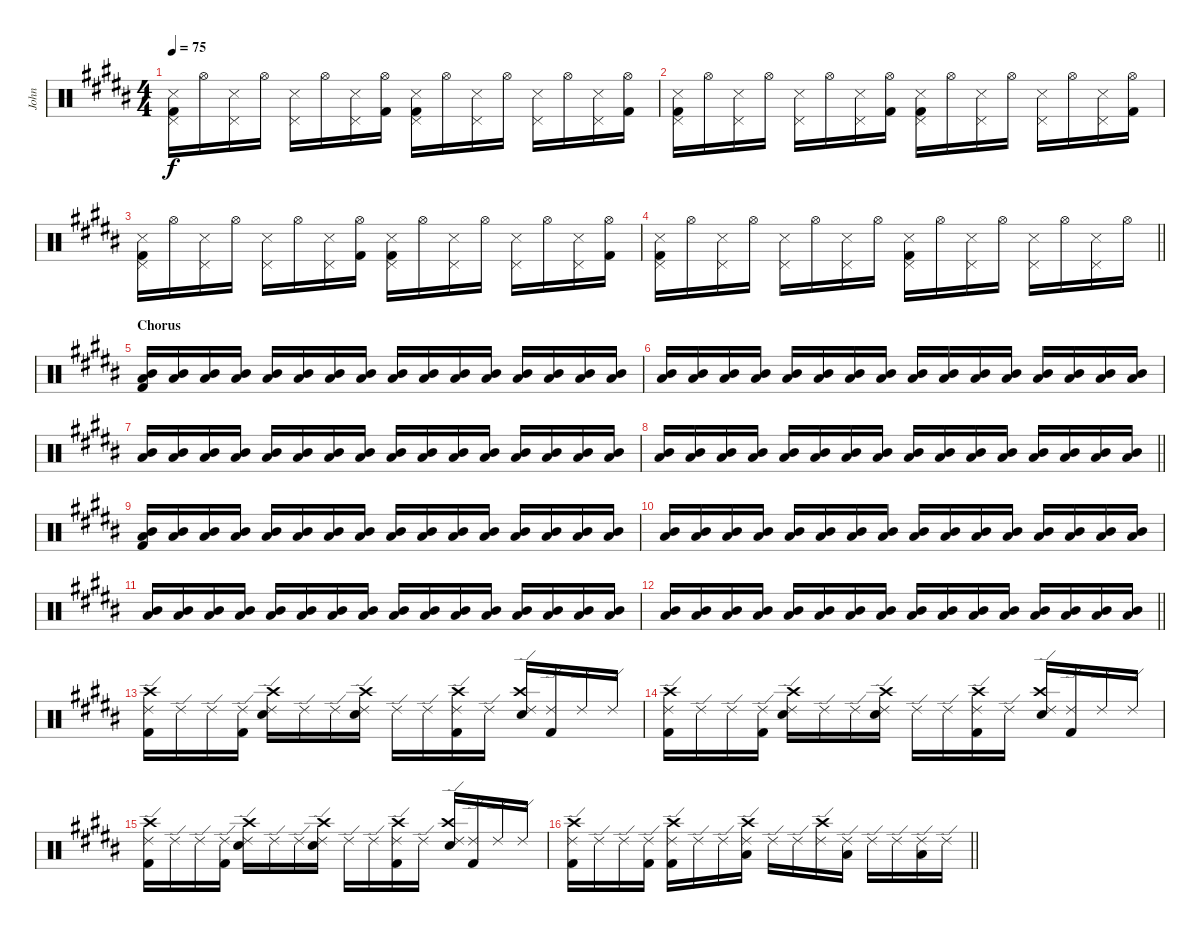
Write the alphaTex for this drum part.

\track ("John" "John") {instrument percussion}
\staff {score}
\articulation defaults
\ts (4 4)
\tempo 75
\clef neutral
\ks g#minor
("Kick (hit) 2" "Pedal Hi-Hat (hit)" "Snare (side stick) 3").16{dy f} "Hi-Hat (open)".16 ("Pedal Hi-Hat (hit)" "Snare (side stick) 3").16 "Hi-Hat (open)".16 ("Pedal Hi-Hat (hit)" "Snare (side stick) 3").16 "Hi-Hat (open)".16 ("Pedal Hi-Hat (hit)" "Snare (side stick) 3").16 ("Kick (hit) 2" "Hi-Hat (open)").16 ("Kick (hit) 2" "Pedal Hi-Hat (hit)" "Snare (side stick) 3").16 "Hi-Hat (open)".16 ("Pedal Hi-Hat (hit)" "Snare (side stick) 3").16 "Hi-Hat (open)".16 ("Pedal Hi-Hat (hit)" "Snare (side stick) 3").16 "Hi-Hat (open)".16 ("Pedal Hi-Hat (hit)" "Snare (side stick) 3").16 ("Kick (hit) 2" "Hi-Hat (open)").16 |
("Kick (hit) 2" "Pedal Hi-Hat (hit)" "Snare (side stick) 3").16 "Hi-Hat (open)".16 ("Pedal Hi-Hat (hit)" "Snare (side stick) 3").16 "Hi-Hat (open)".16 ("Pedal Hi-Hat (hit)" "Snare (side stick) 3").16 "Hi-Hat (open)".16 ("Pedal Hi-Hat (hit)" "Snare (side stick) 3").16 ("Kick (hit) 2" "Hi-Hat (open)").16 ("Kick (hit) 2" "Pedal Hi-Hat (hit)" "Snare (side stick) 3").16 "Hi-Hat (open)".16 ("Pedal Hi-Hat (hit)" "Snare (side stick) 3").16 "Hi-Hat (open)".16 ("Pedal Hi-Hat (hit)" "Snare (side stick) 3").16 "Hi-Hat (open)".16 ("Pedal Hi-Hat (hit)" "Snare (side stick) 3").16 ("Kick (hit) 2" "Hi-Hat (open)").16 |
("Kick (hit) 2" "Pedal Hi-Hat (hit)" "Snare (side stick) 3").16 "Hi-Hat (open)".16 ("Pedal Hi-Hat (hit)" "Snare (side stick) 3").16 "Hi-Hat (open)".16 ("Pedal Hi-Hat (hit)" "Snare (side stick) 3").16 "Hi-Hat (open)".16 ("Pedal Hi-Hat (hit)" "Snare (side stick) 3").16 ("Kick (hit) 2" "Hi-Hat (open)").16 ("Kick (hit) 2" "Pedal Hi-Hat (hit)" "Snare (side stick) 3").16 "Hi-Hat (open)".16 ("Pedal Hi-Hat (hit)" "Snare (side stick) 3").16 "Hi-Hat (open)".16 ("Pedal Hi-Hat (hit)" "Snare (side stick) 3").16 "Hi-Hat (open)".16 ("Pedal Hi-Hat (hit)" "Snare (side stick) 3").16 ("Kick (hit) 2" "Hi-Hat (open)").16 |
\barLineRight lightlight
("Kick (hit) 2" "Pedal Hi-Hat (hit)" "Snare (side stick) 3").16 "Hi-Hat (open)".16 ("Pedal Hi-Hat (hit)" "Snare (side stick) 3").16 "Hi-Hat (open)".16 ("Pedal Hi-Hat (hit)" "Snare (side stick) 3").16 "Hi-Hat (open)".16 ("Pedal Hi-Hat (hit)" "Snare (side stick) 3").16 "Hi-Hat (open)".16 ("Kick (hit) 2" "Pedal Hi-Hat (hit)" "Snare (side stick) 3").16 "Hi-Hat (open)".16 ("Pedal Hi-Hat (hit)" "Snare (side stick) 3").16 "Hi-Hat (open)".16 ("Pedal Hi-Hat (hit)" "Snare (side stick) 3").16 "Hi-Hat (open)".16 ("Pedal Hi-Hat (hit)" "Snare (side stick) 3").16 "Hi-Hat (open)".16 |
\section ("" "Chorus")
("Kick (hit) 2" "Mid Tom (hit)" "Low Tom (hit)").16 ("Mid Tom (hit)" "Low Tom (hit)").16 ("Mid Tom (hit)" "Low Tom (hit)").16 ("Mid Tom (hit)" "Low Tom (hit)").16 ("Mid Tom (hit)" "Low Tom (hit)").16 ("Mid Tom (hit)" "Low Tom (hit)").16 ("Mid Tom (hit)" "Low Tom (hit)").16 ("Mid Tom (hit)" "Low Tom (hit)").16 ("Mid Tom (hit)" "Low Tom (hit)").16 ("Mid Tom (hit)" "Low Tom (hit)").16 ("Mid Tom (hit)" "Low Tom (hit)").16 ("Mid Tom (hit)" "Low Tom (hit)").16 ("Mid Tom (hit)" "Low Tom (hit)").16 ("Mid Tom (hit)" "Low Tom (hit)").16 ("Mid Tom (hit)" "Low Tom (hit)").16 ("Mid Tom (hit)" "Low Tom (hit)").16 |
("Mid Tom (hit)" "Low Tom (hit)").16 ("Mid Tom (hit)" "Low Tom (hit)").16 ("Mid Tom (hit)" "Low Tom (hit)").16 ("Mid Tom (hit)" "Low Tom (hit)").16 ("Mid Tom (hit)" "Low Tom (hit)").16 ("Mid Tom (hit)" "Low Tom (hit)").16 ("Mid Tom (hit)" "Low Tom (hit)").16 ("Mid Tom (hit)" "Low Tom (hit)").16 ("Mid Tom (hit)" "Low Tom (hit)").16 ("Mid Tom (hit)" "Low Tom (hit)").16 ("Mid Tom (hit)" "Low Tom (hit)").16 ("Mid Tom (hit)" "Low Tom (hit)").16 ("Mid Tom (hit)" "Low Tom (hit)").16 ("Mid Tom (hit)" "Low Tom (hit)").16 ("Mid Tom (hit)" "Low Tom (hit)").16 ("Mid Tom (hit)" "Low Tom (hit)").16 |
("Mid Tom (hit)" "Low Tom (hit)").16 ("Mid Tom (hit)" "Low Tom (hit)").16 ("Mid Tom (hit)" "Low Tom (hit)").16 ("Mid Tom (hit)" "Low Tom (hit)").16 ("Mid Tom (hit)" "Low Tom (hit)").16 ("Mid Tom (hit)" "Low Tom (hit)").16 ("Mid Tom (hit)" "Low Tom (hit)").16 ("Mid Tom (hit)" "Low Tom (hit)").16 ("Mid Tom (hit)" "Low Tom (hit)").16 ("Mid Tom (hit)" "Low Tom (hit)").16 ("Mid Tom (hit)" "Low Tom (hit)").16 ("Mid Tom (hit)" "Low Tom (hit)").16 ("Mid Tom (hit)" "Low Tom (hit)").16 ("Mid Tom (hit)" "Low Tom (hit)").16 ("Mid Tom (hit)" "Low Tom (hit)").16 ("Mid Tom (hit)" "Low Tom (hit)").16 |
\barLineRight lightlight
("Mid Tom (hit)" "Low Tom (hit)").16 ("Mid Tom (hit)" "Low Tom (hit)").16 ("Mid Tom (hit)" "Low Tom (hit)").16 ("Mid Tom (hit)" "Low Tom (hit)").16 ("Mid Tom (hit)" "Low Tom (hit)").16 ("Mid Tom (hit)" "Low Tom (hit)").16 ("Mid Tom (hit)" "Low Tom (hit)").16 ("Mid Tom (hit)" "Low Tom (hit)").16 ("Mid Tom (hit)" "Low Tom (hit)").16 ("Mid Tom (hit)" "Low Tom (hit)").16 ("Mid Tom (hit)" "Low Tom (hit)").16 ("Mid Tom (hit)" "Low Tom (hit)").16 ("Mid Tom (hit)" "Low Tom (hit)").16 ("Mid Tom (hit)" "Low Tom (hit)").16 ("Mid Tom (hit)" "Low Tom (hit)").16 ("Mid Tom (hit)" "Low Tom (hit)").16 |
("Kick (hit) 2" "Mid Tom (hit)" "Low Tom (hit)").16 ("Mid Tom (hit)" "Low Tom (hit)").16 ("Mid Tom (hit)" "Low Tom (hit)").16 ("Mid Tom (hit)" "Low Tom (hit)").16 ("Mid Tom (hit)" "Low Tom (hit)").16 ("Mid Tom (hit)" "Low Tom (hit)").16 ("Mid Tom (hit)" "Low Tom (hit)").16 ("Mid Tom (hit)" "Low Tom (hit)").16 ("Mid Tom (hit)" "Low Tom (hit)").16 ("Mid Tom (hit)" "Low Tom (hit)").16 ("Mid Tom (hit)" "Low Tom (hit)").16 ("Mid Tom (hit)" "Low Tom (hit)").16 ("Mid Tom (hit)" "Low Tom (hit)").16 ("Mid Tom (hit)" "Low Tom (hit)").16 ("Mid Tom (hit)" "Low Tom (hit)").16 ("Mid Tom (hit)" "Low Tom (hit)").16 |
("Mid Tom (hit)" "Low Tom (hit)").16 ("Mid Tom (hit)" "Low Tom (hit)").16 ("Mid Tom (hit)" "Low Tom (hit)").16 ("Mid Tom (hit)" "Low Tom (hit)").16 ("Mid Tom (hit)" "Low Tom (hit)").16 ("Mid Tom (hit)" "Low Tom (hit)").16 ("Mid Tom (hit)" "Low Tom (hit)").16 ("Mid Tom (hit)" "Low Tom (hit)").16 ("Mid Tom (hit)" "Low Tom (hit)").16 ("Mid Tom (hit)" "Low Tom (hit)").16 ("Mid Tom (hit)" "Low Tom (hit)").16 ("Mid Tom (hit)" "Low Tom (hit)").16 ("Mid Tom (hit)" "Low Tom (hit)").16 ("Mid Tom (hit)" "Low Tom (hit)").16 ("Mid Tom (hit)" "Low Tom (hit)").16 ("Mid Tom (hit)" "Low Tom (hit)").16 |
("Mid Tom (hit)" "Low Tom (hit)").16 ("Mid Tom (hit)" "Low Tom (hit)").16 ("Mid Tom (hit)" "Low Tom (hit)").16 ("Mid Tom (hit)" "Low Tom (hit)").16 ("Mid Tom (hit)" "Low Tom (hit)").16 ("Mid Tom (hit)" "Low Tom (hit)").16 ("Mid Tom (hit)" "Low Tom (hit)").16 ("Mid Tom (hit)" "Low Tom (hit)").16 ("Mid Tom (hit)" "Low Tom (hit)").16 ("Mid Tom (hit)" "Low Tom (hit)").16 ("Mid Tom (hit)" "Low Tom (hit)").16 ("Mid Tom (hit)" "Low Tom (hit)").16 ("Mid Tom (hit)" "Low Tom (hit)").16 ("Mid Tom (hit)" "Low Tom (hit)").16 ("Mid Tom (hit)" "Low Tom (hit)").16 ("Mid Tom (hit)" "Low Tom (hit)").16 |
\barLineRight lightlight
("Mid Tom (hit)" "Low Tom (hit)").16 ("Mid Tom (hit)" "Low Tom (hit)").16 ("Mid Tom (hit)" "Low Tom (hit)").16 ("Mid Tom (hit)" "Low Tom (hit)").16 ("Mid Tom (hit)" "Low Tom (hit)").16 ("Mid Tom (hit)" "Low Tom (hit)").16 ("Mid Tom (hit)" "Low Tom (hit)").16 ("Mid Tom (hit)" "Low Tom (hit)").16 ("Mid Tom (hit)" "Low Tom (hit)").16 ("Mid Tom (hit)" "Low Tom (hit)").16 ("Mid Tom (hit)" "Low Tom (hit)").16 ("Mid Tom (hit)" "Low Tom (hit)").16 ("Mid Tom (hit)" "Low Tom (hit)").16 ("Mid Tom (hit)" "Low Tom (hit)").16 ("Mid Tom (hit)" "Low Tom (hit)").16 ("Mid Tom (hit)" "Low Tom (hit)").16 |
("Kick (hit) 2" "Ride (edge) 2" "Crash high (hit)").16 "Ride (edge) 2".16 "Ride (edge) 2".16 ("Kick (hit) 2" "Ride (edge) 2").16 ("Ride (edge) 2" "Snare (hit) 2" "Crash high (hit)").16 "Ride (edge) 2".16 "Ride (edge) 2".16 ("Ride (edge) 2" "Snare (hit) 2" "Crash high (hit)").16 "Ride (edge) 2".16 "Ride (edge) 2".16 ("Kick (hit) 2" "Ride (edge) 2" "Crash high (hit)").16 "Ride (edge) 2".16 ("Ride (edge) 2" "Snare (hit) 2" "Crash high (hit)").16 ("Kick (hit) 2" "Ride (edge) 2").16 "Ride (edge) 2".16 "Ride (edge) 2".16 |
("Kick (hit) 2" "Ride (edge) 2" "Crash high (hit)").16 "Ride (edge) 2".16 "Ride (edge) 2".16 ("Kick (hit) 2" "Ride (edge) 2").16 ("Ride (edge) 2" "Snare (hit) 2" "Crash high (hit)").16 "Ride (edge) 2".16 "Ride (edge) 2".16 ("Ride (edge) 2" "Snare (hit) 2" "Crash high (hit)").16 "Ride (edge) 2".16 "Ride (edge) 2".16 ("Kick (hit) 2" "Ride (edge) 2" "Crash high (hit)").16 "Ride (edge) 2".16 ("Ride (edge) 2" "Snare (hit) 2" "Crash high (hit)").16 ("Kick (hit) 2" "Ride (edge) 2").16 "Ride (edge) 2".16 "Ride (edge) 2".16 |
("Kick (hit) 2" "Ride (edge) 2" "Crash high (hit)").16 "Ride (edge) 2".16 "Ride (edge) 2".16 ("Kick (hit) 2" "Ride (edge) 2").16 ("Ride (edge) 2" "Snare (hit) 2" "Crash high (hit)").16 "Ride (edge) 2".16 "Ride (edge) 2".16 ("Ride (edge) 2" "Snare (hit) 2" "Crash high (hit)").16 "Ride (edge) 2".16 "Ride (edge) 2".16 ("Kick (hit) 2" "Ride (edge) 2" "Crash high (hit)").16 "Ride (edge) 2".16 ("Ride (edge) 2" "Snare (hit) 2" "Crash high (hit)").16 ("Kick (hit) 2" "Ride (edge) 2").16 "Ride (edge) 2".16 "Ride (edge) 2".16 |
\barLineRight lightlight
("Kick (hit) 2" "Ride (edge) 2" "Crash high (hit)").16 "Ride (edge) 2".16 "Ride (edge) 2".16 ("Kick (hit) 2" "Ride (edge) 2").16 ("Ride (edge) 2" "Crash high (hit)" "Kick (hit) 2").16 "Ride (edge) 2".16 "Ride (edge) 2".16 ("Ride (edge) 2" "Low Tom (hit)" "Crash high (hit)").16 "Ride (edge) 2".16 "Ride (edge) 2".16 ("Ride (edge) 2" "Crash high (hit)").16 ("Ride (edge) 2" "Low Tom (hit)").16 "Ride (edge) 2".16 "Ride (edge) 2".16 ("Ride (edge) 2" "Low Tom (hit)").16 "Ride (edge) 2".16
